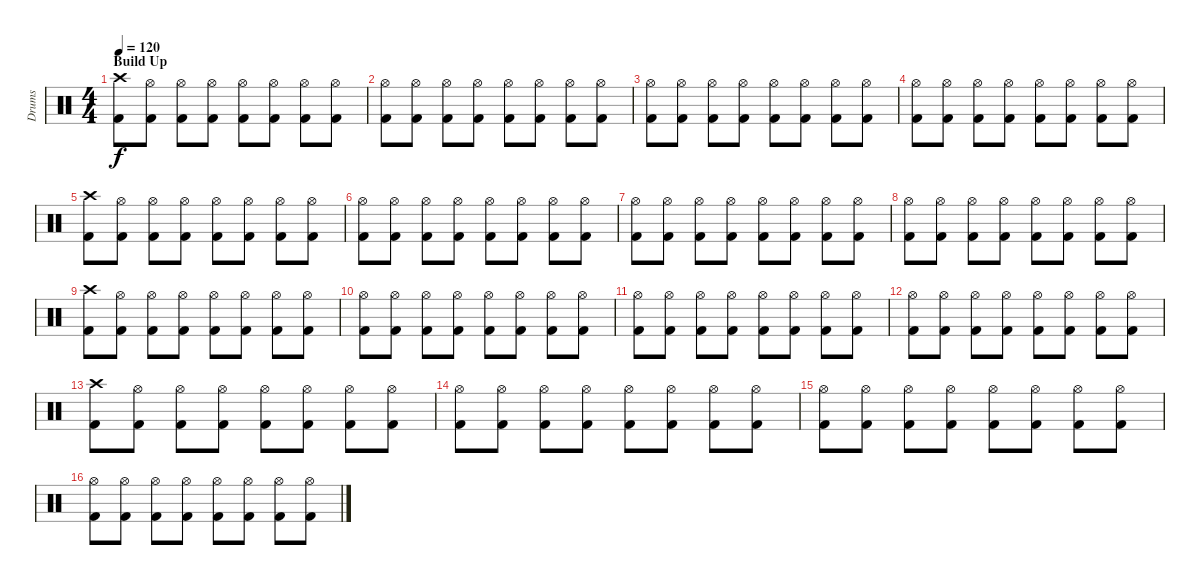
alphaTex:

\track ("Drums" "Drums") {instrument percussion}
\staff {score}
\articulation defaults
\ts (4 4)
\section ("" "Build Up")
\tempo 120
\clef neutral
\ks c
("Crash high (hit)" "Kick (hit) 2").8{dy f} ("Hi-Hat (open)" "Kick (hit) 2").8 ("Hi-Hat (open)" "Kick (hit) 2").8 ("Hi-Hat (open)" "Kick (hit) 2").8 ("Hi-Hat (open)" "Kick (hit) 2").8 ("Hi-Hat (open)" "Kick (hit) 2").8 ("Hi-Hat (open)" "Kick (hit) 2").8 ("Hi-Hat (open)" "Kick (hit) 2").8 |
("Hi-Hat (open)" "Kick (hit) 2").8 ("Hi-Hat (open)" "Kick (hit) 2").8 ("Hi-Hat (open)" "Kick (hit) 2").8 ("Hi-Hat (open)" "Kick (hit) 2").8 ("Hi-Hat (open)" "Kick (hit) 2").8 ("Hi-Hat (open)" "Kick (hit) 2").8 ("Hi-Hat (open)" "Kick (hit) 2").8 ("Hi-Hat (open)" "Kick (hit) 2").8 |
("Hi-Hat (open)" "Kick (hit) 2").8 ("Hi-Hat (open)" "Kick (hit) 2").8 ("Hi-Hat (open)" "Kick (hit) 2").8 ("Hi-Hat (open)" "Kick (hit) 2").8 ("Hi-Hat (open)" "Kick (hit) 2").8 ("Hi-Hat (open)" "Kick (hit) 2").8 ("Hi-Hat (open)" "Kick (hit) 2").8 ("Hi-Hat (open)" "Kick (hit) 2").8 |
("Hi-Hat (open)" "Kick (hit) 2").8 ("Hi-Hat (open)" "Kick (hit) 2").8 ("Hi-Hat (open)" "Kick (hit) 2").8 ("Hi-Hat (open)" "Kick (hit) 2").8 ("Hi-Hat (open)" "Kick (hit) 2").8 ("Hi-Hat (open)" "Kick (hit) 2").8 ("Hi-Hat (open)" "Kick (hit) 2").8 ("Hi-Hat (open)" "Kick (hit) 2").8 |
("Crash high (hit)" "Kick (hit) 2").8 ("Hi-Hat (open)" "Kick (hit) 2").8 ("Hi-Hat (open)" "Kick (hit) 2").8 ("Hi-Hat (open)" "Kick (hit) 2").8 ("Hi-Hat (open)" "Kick (hit) 2").8 ("Hi-Hat (open)" "Kick (hit) 2").8 ("Hi-Hat (open)" "Kick (hit) 2").8 ("Hi-Hat (open)" "Kick (hit) 2").8 |
("Hi-Hat (open)" "Kick (hit) 2").8 ("Hi-Hat (open)" "Kick (hit) 2").8 ("Hi-Hat (open)" "Kick (hit) 2").8 ("Hi-Hat (open)" "Kick (hit) 2").8 ("Hi-Hat (open)" "Kick (hit) 2").8 ("Hi-Hat (open)" "Kick (hit) 2").8 ("Hi-Hat (open)" "Kick (hit) 2").8 ("Hi-Hat (open)" "Kick (hit) 2").8 |
("Hi-Hat (open)" "Kick (hit) 2").8 ("Hi-Hat (open)" "Kick (hit) 2").8 ("Hi-Hat (open)" "Kick (hit) 2").8 ("Hi-Hat (open)" "Kick (hit) 2").8 ("Hi-Hat (open)" "Kick (hit) 2").8 ("Hi-Hat (open)" "Kick (hit) 2").8 ("Hi-Hat (open)" "Kick (hit) 2").8 ("Hi-Hat (open)" "Kick (hit) 2").8 |
("Hi-Hat (open)" "Kick (hit) 2").8 ("Hi-Hat (open)" "Kick (hit) 2").8 ("Hi-Hat (open)" "Kick (hit) 2").8 ("Hi-Hat (open)" "Kick (hit) 2").8 ("Hi-Hat (open)" "Kick (hit) 2").8 ("Hi-Hat (open)" "Kick (hit) 2").8 ("Hi-Hat (open)" "Kick (hit) 2").8 ("Hi-Hat (open)" "Kick (hit) 2").8 |
("Crash high (hit)" "Kick (hit) 2").8 ("Hi-Hat (open)" "Kick (hit) 2").8 ("Hi-Hat (open)" "Kick (hit) 2").8 ("Hi-Hat (open)" "Kick (hit) 2").8 ("Hi-Hat (open)" "Kick (hit) 2").8 ("Hi-Hat (open)" "Kick (hit) 2").8 ("Hi-Hat (open)" "Kick (hit) 2").8 ("Hi-Hat (open)" "Kick (hit) 2").8 |
("Hi-Hat (open)" "Kick (hit) 2").8 ("Hi-Hat (open)" "Kick (hit) 2").8 ("Hi-Hat (open)" "Kick (hit) 2").8 ("Hi-Hat (open)" "Kick (hit) 2").8 ("Hi-Hat (open)" "Kick (hit) 2").8 ("Hi-Hat (open)" "Kick (hit) 2").8 ("Hi-Hat (open)" "Kick (hit) 2").8 ("Hi-Hat (open)" "Kick (hit) 2").8 |
("Hi-Hat (open)" "Kick (hit) 2").8 ("Hi-Hat (open)" "Kick (hit) 2").8 ("Hi-Hat (open)" "Kick (hit) 2").8 ("Hi-Hat (open)" "Kick (hit) 2").8 ("Hi-Hat (open)" "Kick (hit) 2").8 ("Hi-Hat (open)" "Kick (hit) 2").8 ("Hi-Hat (open)" "Kick (hit) 2").8 ("Hi-Hat (open)" "Kick (hit) 2").8 |
("Hi-Hat (open)" "Kick (hit) 2").8 ("Hi-Hat (open)" "Kick (hit) 2").8 ("Hi-Hat (open)" "Kick (hit) 2").8 ("Hi-Hat (open)" "Kick (hit) 2").8 ("Hi-Hat (open)" "Kick (hit) 2").8 ("Hi-Hat (open)" "Kick (hit) 2").8 ("Hi-Hat (open)" "Kick (hit) 2").8 ("Hi-Hat (open)" "Kick (hit) 2").8 |
("Crash high (hit)" "Kick (hit) 2").8 ("Hi-Hat (open)" "Kick (hit) 2").8 ("Hi-Hat (open)" "Kick (hit) 2").8 ("Hi-Hat (open)" "Kick (hit) 2").8 ("Hi-Hat (open)" "Kick (hit) 2").8 ("Hi-Hat (open)" "Kick (hit) 2").8 ("Hi-Hat (open)" "Kick (hit) 2").8 ("Hi-Hat (open)" "Kick (hit) 2").8 |
("Hi-Hat (open)" "Kick (hit) 2").8 ("Hi-Hat (open)" "Kick (hit) 2").8 ("Hi-Hat (open)" "Kick (hit) 2").8 ("Hi-Hat (open)" "Kick (hit) 2").8 ("Hi-Hat (open)" "Kick (hit) 2").8 ("Hi-Hat (open)" "Kick (hit) 2").8 ("Hi-Hat (open)" "Kick (hit) 2").8 ("Hi-Hat (open)" "Kick (hit) 2").8 |
("Hi-Hat (open)" "Kick (hit) 2").8 ("Hi-Hat (open)" "Kick (hit) 2").8 ("Hi-Hat (open)" "Kick (hit) 2").8 ("Hi-Hat (open)" "Kick (hit) 2").8 ("Hi-Hat (open)" "Kick (hit) 2").8 ("Hi-Hat (open)" "Kick (hit) 2").8 ("Hi-Hat (open)" "Kick (hit) 2").8 ("Hi-Hat (open)" "Kick (hit) 2").8 |
("Hi-Hat (open)" "Kick (hit) 2").8 ("Hi-Hat (open)" "Kick (hit) 2").8 ("Hi-Hat (open)" "Kick (hit) 2").8 ("Hi-Hat (open)" "Kick (hit) 2").8 ("Hi-Hat (open)" "Kick (hit) 2").8 ("Hi-Hat (open)" "Kick (hit) 2").8 ("Hi-Hat (open)" "Kick (hit) 2").8 ("Hi-Hat (open)" "Kick (hit) 2").8
